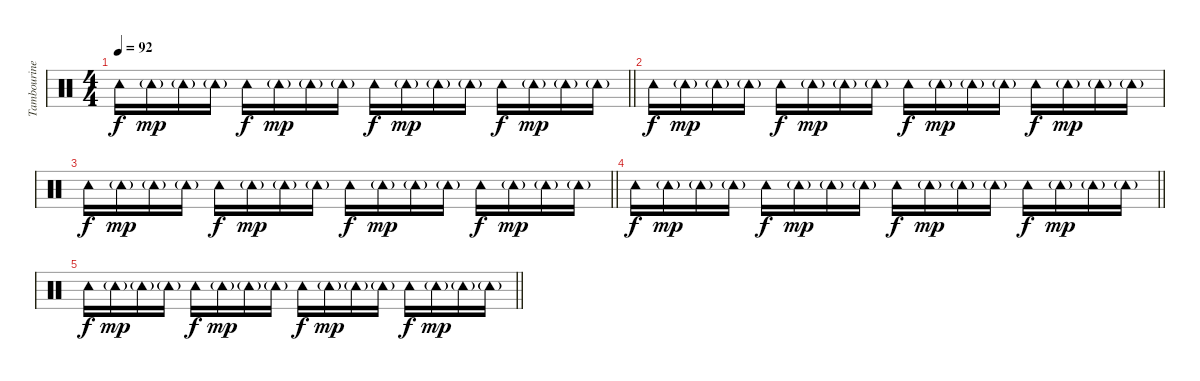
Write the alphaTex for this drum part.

\track ("Tambourine" "Tambourine") {instrument percussion}
\staff {score}
\articulation defaults
\ts (4 4)
\tempo 92
\clef neutral
\barLineRight lightlight
\ks c "Tambourine (hit)".16{dy f} "Tambourine (hit)"{g}.16{dy mp} "Tambourine (hit)"{g}.16 "Tambourine (hit)"{g}.16 "Tambourine (hit)".16{dy f} "Tambourine (hit)"{g}.16{dy mp} "Tambourine (hit)"{g}.16 "Tambourine (hit)"{g}.16 "Tambourine (hit)".16{dy f} "Tambourine (hit)"{g}.16{dy mp} "Tambourine (hit)"{g}.16 "Tambourine (hit)"{g}.16 "Tambourine (hit)".16{dy f} "Tambourine (hit)"{g}.16{dy mp} "Tambourine (hit)"{g}.16 "Tambourine (hit)"{g}.16
|
"Tambourine (hit)".16{dy f} "Tambourine (hit)"{g}.16{dy mp} "Tambourine (hit)"{g}.16 "Tambourine (hit)"{g}.16 "Tambourine (hit)".16{dy f} "Tambourine (hit)"{g}.16{dy mp} "Tambourine (hit)"{g}.16 "Tambourine (hit)"{g}.16 "Tambourine (hit)".16{dy f} "Tambourine (hit)"{g}.16{dy mp} "Tambourine (hit)"{g}.16 "Tambourine (hit)"{g}.16 "Tambourine (hit)".16{dy f} "Tambourine (hit)"{g}.16{dy mp} "Tambourine (hit)"{g}.16 "Tambourine (hit)"{g}.16 |
\barLineRight lightlight "Tambourine (hit)".16{dy f} "Tambourine (hit)"{g}.16{dy mp} "Tambourine (hit)"{g}.16 "Tambourine (hit)"{g}.16 "Tambourine (hit)".16{dy f} "Tambourine (hit)"{g}.16{dy mp} "Tambourine (hit)"{g}.16 "Tambourine (hit)"{g}.16 "Tambourine (hit)".16{dy f} "Tambourine (hit)"{g}.16{dy mp} "Tambourine (hit)"{g}.16 "Tambourine (hit)"{g}.16 "Tambourine (hit)".16{dy f} "Tambourine (hit)"{g}.16{dy mp} "Tambourine (hit)"{g}.16 "Tambourine (hit)"{g}.16
|
\barLineRight lightlight "Tambourine (hit)".16{dy f} "Tambourine (hit)"{g}.16{dy mp} "Tambourine (hit)"{g}.16 "Tambourine (hit)"{g}.16 "Tambourine (hit)".16{dy f} "Tambourine (hit)"{g}.16{dy mp} "Tambourine (hit)"{g}.16 "Tambourine (hit)"{g}.16 "Tambourine (hit)".16{dy f} "Tambourine (hit)"{g}.16{dy mp} "Tambourine (hit)"{g}.16 "Tambourine (hit)"{g}.16 "Tambourine (hit)".16{dy f} "Tambourine (hit)"{g}.16{dy mp} "Tambourine (hit)"{g}.16 "Tambourine (hit)"{g}.16
|
\barLineRight lightlight "Tambourine (hit)".16{dy f} "Tambourine (hit)"{g}.16{dy mp} "Tambourine (hit)"{g}.16 "Tambourine (hit)"{g}.16 "Tambourine (hit)".16{dy f} "Tambourine (hit)"{g}.16{dy mp} "Tambourine (hit)"{g}.16 "Tambourine (hit)"{g}.16 "Tambourine (hit)".16{dy f} "Tambourine (hit)"{g}.16{dy mp} "Tambourine (hit)"{g}.16 "Tambourine (hit)"{g}.16 "Tambourine (hit)".16{dy f} "Tambourine (hit)"{g}.16{dy mp} "Tambourine (hit)"{g}.16 "Tambourine (hit)"{g}.16
